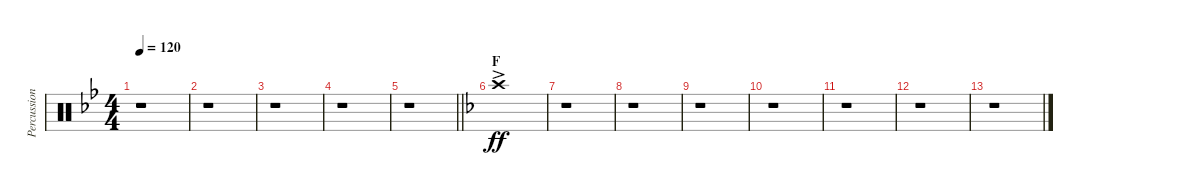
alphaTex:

\track ("Percussion" "Percussion") {instrument percussion}
\staff {score}
\articulation defaults
\ts (4 4)
\tempo 120
\clef neutral
\ks bb
r.1{dy ff} |
r.1 |
r.1 |
r.1 |
\barLineRight lightlight
r.1 |
\section ("" "F")
\ks f "Crash high (hit)"{ac}.1
|
r.1 |
r.1 |
r.1 |
r.1 |
r.1 |
r.1 |
r.1
